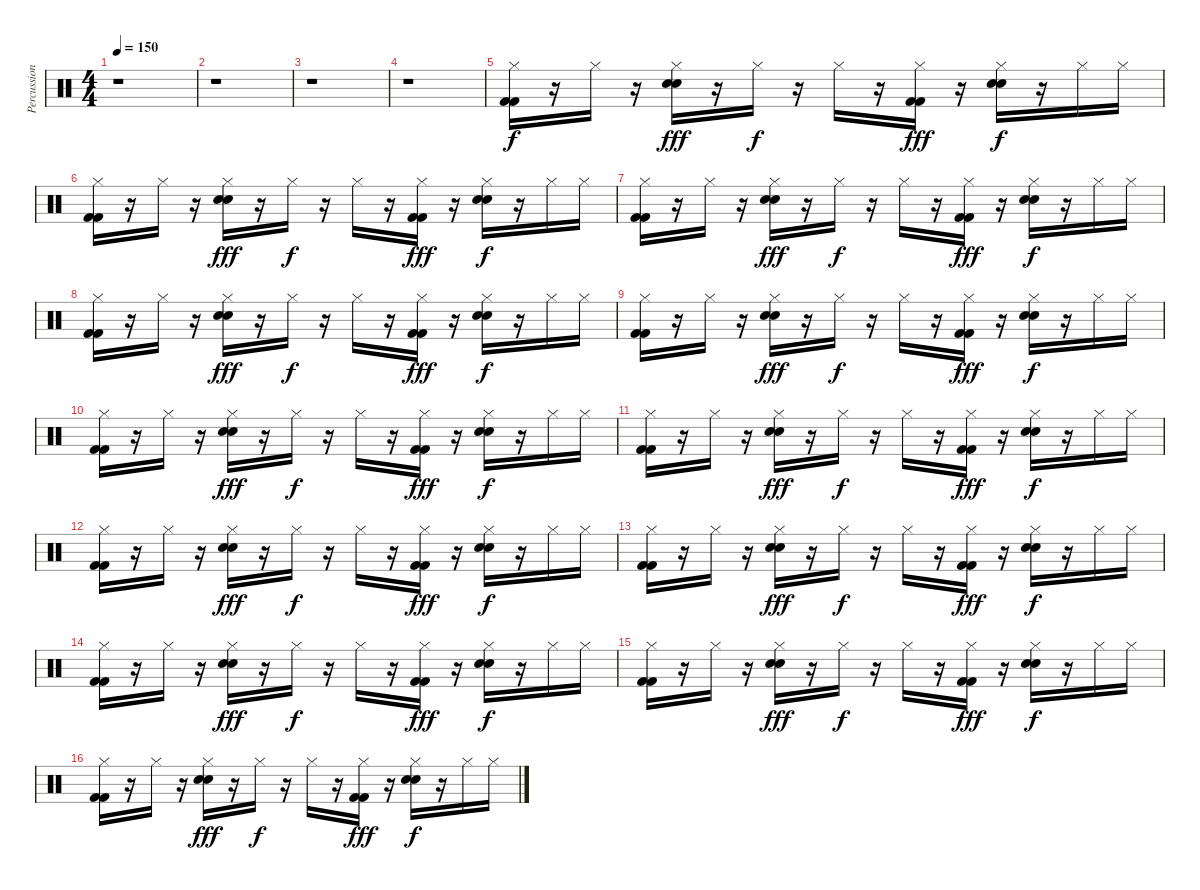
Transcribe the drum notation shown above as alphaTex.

\track ("Percussions" "Percussion") {instrument percussion}
\staff {score}
\articulation defaults
\ts (4 4)
\tempo 150
\clef neutral
\ks c
r.1{dy f} |
r.1 |
r.1 |
r.1 |
("Hi-Hat (closed)" "Kick (hit) 2" "Kick (hit) 2").16 r.16 "Hi-Hat (closed)".16 r.16 ("Hi-Hat (closed)" "Snare (hit) 2" "Electric Snare (hit)").16{dy fff} r.16 "Hi-Hat (closed)".16{dy f} r.16 "Hi-Hat (closed)".16 r.16 ("Hi-Hat (closed)" "Kick (hit) 2" "Kick (hit) 2").16{dy fff} r.16 ("Hi-Hat (closed)" "Snare (hit) 2" "Electric Snare (hit)").16{dy f} r.16 "Hi-Hat (closed)".16 "Hi-Hat (closed)".16 |
("Hi-Hat (closed)" "Kick (hit) 2" "Kick (hit) 2").16 r.16 "Hi-Hat (closed)".16 r.16 ("Hi-Hat (closed)" "Snare (hit) 2" "Electric Snare (hit)").16{dy fff} r.16 "Hi-Hat (closed)".16{dy f} r.16 "Hi-Hat (closed)".16 r.16 ("Hi-Hat (closed)" "Kick (hit) 2" "Kick (hit) 2").16{dy fff} r.16 ("Hi-Hat (closed)" "Snare (hit) 2" "Electric Snare (hit)").16{dy f} r.16 "Hi-Hat (closed)".16 "Hi-Hat (closed)".16 |
("Hi-Hat (closed)" "Kick (hit) 2" "Kick (hit) 2").16 r.16 "Hi-Hat (closed)".16 r.16 ("Hi-Hat (closed)" "Snare (hit) 2" "Electric Snare (hit)").16{dy fff} r.16 "Hi-Hat (closed)".16{dy f} r.16 "Hi-Hat (closed)".16 r.16 ("Hi-Hat (closed)" "Kick (hit) 2" "Kick (hit) 2").16{dy fff} r.16 ("Hi-Hat (closed)" "Snare (hit) 2" "Electric Snare (hit)").16{dy f} r.16 "Hi-Hat (closed)".16 "Hi-Hat (closed)".16 |
("Hi-Hat (closed)" "Kick (hit) 2" "Kick (hit) 2").16 r.16 "Hi-Hat (closed)".16 r.16 ("Hi-Hat (closed)" "Snare (hit) 2" "Electric Snare (hit)").16{dy fff} r.16 "Hi-Hat (closed)".16{dy f} r.16 "Hi-Hat (closed)".16 r.16 ("Hi-Hat (closed)" "Kick (hit) 2" "Kick (hit) 2").16{dy fff} r.16 ("Hi-Hat (closed)" "Snare (hit) 2" "Electric Snare (hit)").16{dy f} r.16 "Hi-Hat (closed)".16 "Hi-Hat (closed)".16 |
("Hi-Hat (closed)" "Kick (hit) 2" "Kick (hit) 2").16 r.16 "Hi-Hat (closed)".16 r.16 ("Hi-Hat (closed)" "Snare (hit) 2" "Electric Snare (hit)").16{dy fff} r.16 "Hi-Hat (closed)".16{dy f} r.16 "Hi-Hat (closed)".16 r.16 ("Hi-Hat (closed)" "Kick (hit) 2" "Kick (hit) 2").16{dy fff} r.16 ("Hi-Hat (closed)" "Snare (hit) 2" "Electric Snare (hit)").16{dy f} r.16 "Hi-Hat (closed)".16 "Hi-Hat (closed)".16 |
("Hi-Hat (closed)" "Kick (hit) 2" "Kick (hit) 2").16 r.16 "Hi-Hat (closed)".16 r.16 ("Hi-Hat (closed)" "Snare (hit) 2" "Electric Snare (hit)").16{dy fff} r.16 "Hi-Hat (closed)".16{dy f} r.16 "Hi-Hat (closed)".16 r.16 ("Hi-Hat (closed)" "Kick (hit) 2" "Kick (hit) 2").16{dy fff} r.16 ("Hi-Hat (closed)" "Snare (hit) 2" "Electric Snare (hit)").16{dy f} r.16 "Hi-Hat (closed)".16 "Hi-Hat (closed)".16 |
("Hi-Hat (closed)" "Kick (hit) 2" "Kick (hit) 2").16 r.16 "Hi-Hat (closed)".16 r.16 ("Hi-Hat (closed)" "Snare (hit) 2" "Electric Snare (hit)").16{dy fff} r.16 "Hi-Hat (closed)".16{dy f} r.16 "Hi-Hat (closed)".16 r.16 ("Hi-Hat (closed)" "Kick (hit) 2" "Kick (hit) 2").16{dy fff} r.16 ("Hi-Hat (closed)" "Snare (hit) 2" "Electric Snare (hit)").16{dy f} r.16 "Hi-Hat (closed)".16 "Hi-Hat (closed)".16 |
("Hi-Hat (closed)" "Kick (hit) 2" "Kick (hit) 2").16 r.16 "Hi-Hat (closed)".16 r.16 ("Hi-Hat (closed)" "Snare (hit) 2" "Electric Snare (hit)").16{dy fff} r.16 "Hi-Hat (closed)".16{dy f} r.16 "Hi-Hat (closed)".16 r.16 ("Hi-Hat (closed)" "Kick (hit) 2" "Kick (hit) 2").16{dy fff} r.16 ("Hi-Hat (closed)" "Snare (hit) 2" "Electric Snare (hit)").16{dy f} r.16 "Hi-Hat (closed)".16 "Hi-Hat (closed)".16 |
("Hi-Hat (closed)" "Kick (hit) 2" "Kick (hit) 2").16 r.16 "Hi-Hat (closed)".16 r.16 ("Hi-Hat (closed)" "Snare (hit) 2" "Electric Snare (hit)").16{dy fff} r.16 "Hi-Hat (closed)".16{dy f} r.16 "Hi-Hat (closed)".16 r.16 ("Hi-Hat (closed)" "Kick (hit) 2" "Kick (hit) 2").16{dy fff} r.16 ("Hi-Hat (closed)" "Snare (hit) 2" "Electric Snare (hit)").16{dy f} r.16 "Hi-Hat (closed)".16 "Hi-Hat (closed)".16 |
("Hi-Hat (closed)" "Kick (hit) 2" "Kick (hit) 2").16 r.16 "Hi-Hat (closed)".16 r.16 ("Hi-Hat (closed)" "Snare (hit) 2" "Electric Snare (hit)").16{dy fff} r.16 "Hi-Hat (closed)".16{dy f} r.16 "Hi-Hat (closed)".16 r.16 ("Hi-Hat (closed)" "Kick (hit) 2" "Kick (hit) 2").16{dy fff} r.16 ("Hi-Hat (closed)" "Snare (hit) 2" "Electric Snare (hit)").16{dy f} r.16 "Hi-Hat (closed)".16 "Hi-Hat (closed)".16 |
("Hi-Hat (closed)" "Kick (hit) 2" "Kick (hit) 2").16 r.16 "Hi-Hat (closed)".16 r.16 ("Hi-Hat (closed)" "Snare (hit) 2" "Electric Snare (hit)").16{dy fff} r.16 "Hi-Hat (closed)".16{dy f} r.16 "Hi-Hat (closed)".16 r.16 ("Hi-Hat (closed)" "Kick (hit) 2" "Kick (hit) 2").16{dy fff} r.16 ("Hi-Hat (closed)" "Snare (hit) 2" "Electric Snare (hit)").16{dy f} r.16 "Hi-Hat (closed)".16 "Hi-Hat (closed)".16 |
("Hi-Hat (closed)" "Kick (hit) 2" "Kick (hit) 2").16 r.16 "Hi-Hat (closed)".16 r.16 ("Hi-Hat (closed)" "Snare (hit) 2" "Electric Snare (hit)").16{dy fff} r.16 "Hi-Hat (closed)".16{dy f} r.16 "Hi-Hat (closed)".16 r.16 ("Hi-Hat (closed)" "Kick (hit) 2" "Kick (hit) 2").16{dy fff} r.16 ("Hi-Hat (closed)" "Snare (hit) 2" "Electric Snare (hit)").16{dy f} r.16 "Hi-Hat (closed)".16 "Hi-Hat (closed)".16
